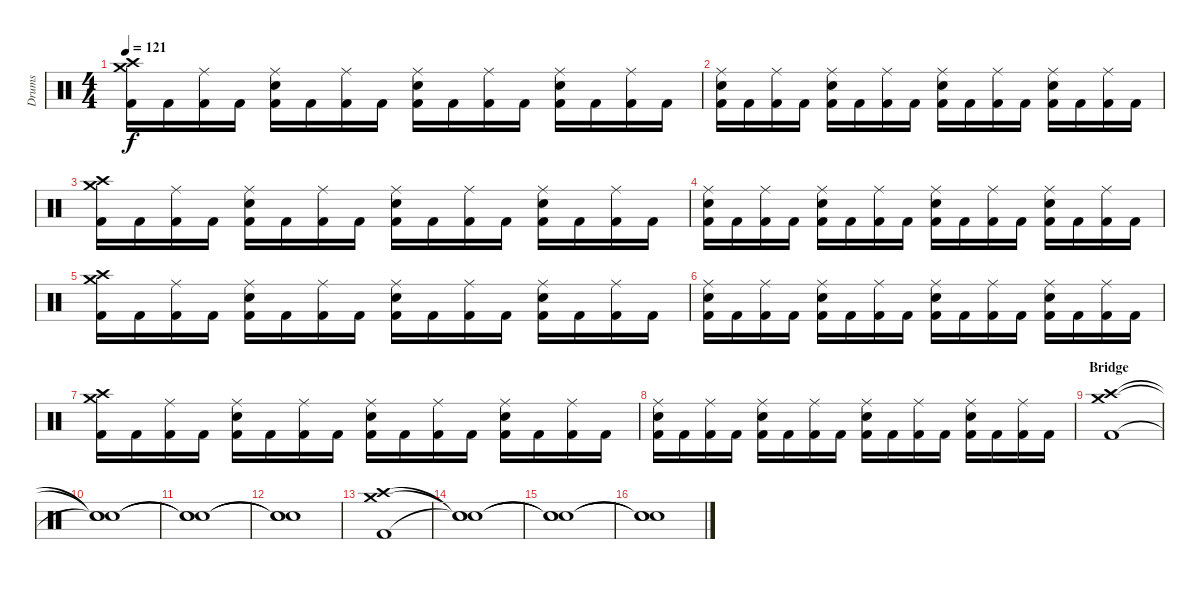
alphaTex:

\track ("Drums" "Drums") {instrument percussion}
\staff {score}
\articulation defaults
\ts (4 4)
\tempo 121
\clef neutral
\ks c
("Crash high (hit)" "Crash medium (hit)" "Kick (hit) 2").16{dy f} "Kick (hit) 2".16 ("Ride (middle)" "Kick (hit) 2").16 "Kick (hit) 2".16 ("Ride (middle)" "Snare (hit) 2" "Kick (hit) 2").16 "Kick (hit) 2".16 ("Ride (middle)" "Kick (hit) 2").16 "Kick (hit) 2".16 ("Ride (middle)" "Snare (hit) 2" "Kick (hit) 2").16 "Kick (hit) 2".16 ("Ride (middle)" "Kick (hit) 2").16 "Kick (hit) 2".16 ("Ride (middle)" "Snare (hit) 2" "Kick (hit) 2").16 "Kick (hit) 2".16 ("Ride (middle)" "Kick (hit) 2").16 "Kick (hit) 2".16 |
("Ride (middle)" "Snare (hit) 2" "Kick (hit) 2").16 "Kick (hit) 2".16 ("Ride (middle)" "Kick (hit) 2").16 "Kick (hit) 2".16 ("Ride (middle)" "Snare (hit) 2" "Kick (hit) 2").16 "Kick (hit) 2".16 ("Ride (middle)" "Kick (hit) 2").16 "Kick (hit) 2".16 ("Ride (middle)" "Snare (hit) 2" "Kick (hit) 2").16 "Kick (hit) 2".16 ("Ride (middle)" "Kick (hit) 2").16 "Kick (hit) 2".16 ("Ride (middle)" "Snare (hit) 2" "Kick (hit) 2").16 "Kick (hit) 2".16 ("Ride (middle)" "Kick (hit) 2").16 "Kick (hit) 2".16 |
("Crash high (hit)" "Crash medium (hit)" "Kick (hit) 2").16 "Kick (hit) 2".16 ("Ride (middle)" "Kick (hit) 2").16 "Kick (hit) 2".16 ("Ride (middle)" "Snare (hit) 2" "Kick (hit) 2").16 "Kick (hit) 2".16 ("Ride (middle)" "Kick (hit) 2").16 "Kick (hit) 2".16 ("Ride (middle)" "Snare (hit) 2" "Kick (hit) 2").16 "Kick (hit) 2".16 ("Ride (middle)" "Kick (hit) 2").16 "Kick (hit) 2".16 ("Ride (middle)" "Snare (hit) 2" "Kick (hit) 2").16 "Kick (hit) 2".16 ("Ride (middle)" "Kick (hit) 2").16 "Kick (hit) 2".16 |
("Ride (middle)" "Snare (hit) 2" "Kick (hit) 2").16 "Kick (hit) 2".16 ("Ride (middle)" "Kick (hit) 2").16 "Kick (hit) 2".16 ("Ride (middle)" "Snare (hit) 2" "Kick (hit) 2").16 "Kick (hit) 2".16 ("Ride (middle)" "Kick (hit) 2").16 "Kick (hit) 2".16 ("Ride (middle)" "Snare (hit) 2" "Kick (hit) 2").16 "Kick (hit) 2".16 ("Ride (middle)" "Kick (hit) 2").16 "Kick (hit) 2".16 ("Ride (middle)" "Snare (hit) 2" "Kick (hit) 2").16 "Kick (hit) 2".16 ("Ride (middle)" "Kick (hit) 2").16 "Kick (hit) 2".16 |
("Crash high (hit)" "Crash medium (hit)" "Kick (hit) 2").16 "Kick (hit) 2".16 ("Ride (middle)" "Kick (hit) 2").16 "Kick (hit) 2".16 ("Ride (middle)" "Snare (hit) 2" "Kick (hit) 2").16 "Kick (hit) 2".16 ("Ride (middle)" "Kick (hit) 2").16 "Kick (hit) 2".16 ("Ride (middle)" "Snare (hit) 2" "Kick (hit) 2").16 "Kick (hit) 2".16 ("Ride (middle)" "Kick (hit) 2").16 "Kick (hit) 2".16 ("Ride (middle)" "Snare (hit) 2" "Kick (hit) 2").16 "Kick (hit) 2".16 ("Ride (middle)" "Kick (hit) 2").16 "Kick (hit) 2".16 |
("Ride (middle)" "Snare (hit) 2" "Kick (hit) 2").16 "Kick (hit) 2".16 ("Ride (middle)" "Kick (hit) 2").16 "Kick (hit) 2".16 ("Ride (middle)" "Snare (hit) 2" "Kick (hit) 2").16 "Kick (hit) 2".16 ("Ride (middle)" "Kick (hit) 2").16 "Kick (hit) 2".16 ("Ride (middle)" "Snare (hit) 2" "Kick (hit) 2").16 "Kick (hit) 2".16 ("Ride (middle)" "Kick (hit) 2").16 "Kick (hit) 2".16 ("Ride (middle)" "Snare (hit) 2" "Kick (hit) 2").16 "Kick (hit) 2".16 ("Ride (middle)" "Kick (hit) 2").16 "Kick (hit) 2".16 |
("Crash high (hit)" "Crash medium (hit)" "Kick (hit) 2").16 "Kick (hit) 2".16 ("Ride (middle)" "Kick (hit) 2").16 "Kick (hit) 2".16 ("Ride (middle)" "Snare (hit) 2" "Kick (hit) 2").16 "Kick (hit) 2".16 ("Ride (middle)" "Kick (hit) 2").16 "Kick (hit) 2".16 ("Ride (middle)" "Snare (hit) 2" "Kick (hit) 2").16 "Kick (hit) 2".16 ("Ride (middle)" "Kick (hit) 2").16 "Kick (hit) 2".16 ("Ride (middle)" "Snare (hit) 2" "Kick (hit) 2").16 "Kick (hit) 2".16 ("Ride (middle)" "Kick (hit) 2").16 "Kick (hit) 2".16 |
("Ride (middle)" "Snare (hit) 2" "Kick (hit) 2").16 "Kick (hit) 2".16 ("Ride (middle)" "Kick (hit) 2").16 "Kick (hit) 2".16 ("Ride (middle)" "Snare (hit) 2" "Kick (hit) 2").16 "Kick (hit) 2".16 ("Ride (middle)" "Kick (hit) 2").16 "Kick (hit) 2".16 ("Ride (middle)" "Snare (hit) 2" "Kick (hit) 2").16 "Kick (hit) 2".16 ("Ride (middle)" "Kick (hit) 2").16 "Kick (hit) 2".16 ("Ride (middle)" "Snare (hit) 2" "Kick (hit) 2").16 "Kick (hit) 2".16 ("Ride (middle)" "Kick (hit) 2").16 "Kick (hit) 2".16 |
\section ("" "Bridge")
("Crash medium (hit)" "Crash high (hit)" "Kick (hit) 2").1 |
("Snare (hit)"{t} "Snare (hit)"{t} "Snare (hit)"{t}).1 |
("Snare (hit)"{t} "Snare (hit)"{t} "Snare (hit)"{t}).1 |
("Snare (hit)"{t} "Snare (hit)"{t} "Snare (hit)"{t}).1 |
("Crash medium (hit)" "Crash high (hit)" "Kick (hit) 2").1 |
("Snare (hit)"{t} "Snare (hit)"{t} "Snare (hit)"{t}).1 |
("Snare (hit)"{t} "Snare (hit)"{t} "Snare (hit)"{t}).1 |
("Snare (hit)"{t} "Snare (hit)"{t} "Snare (hit)"{t}).1
